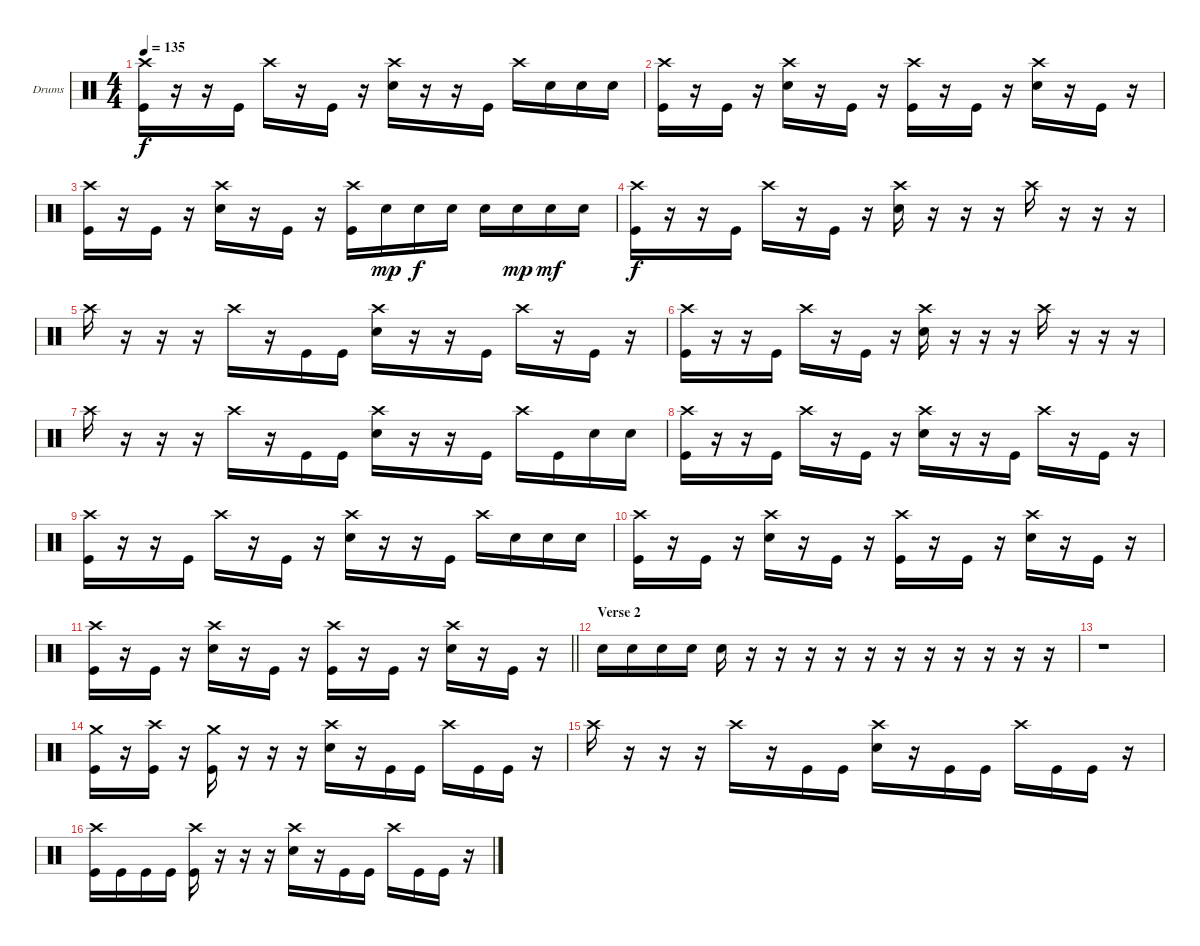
\bracketExtendMode groupsimilarinstruments
\firstSystemTrackNameOrientation horizontal
\otherSystemsTrackNameOrientation horizontal
\track ("Drumkit" "Drums") {instrument percussion}
\staff {score}
\articulation defaults
\ts (4 4)
\tempo 135
\clef neutral
\ks c
("Crash high (hit)" "Kick (hit)").16{dy f} r.16 r.16 "Kick (hit)".16 "Crash high (hit)".16 r.16 "Kick (hit)".16 r.16 ("Crash high (hit)" "Snare (hit) 2").16 r.16 r.16 "Kick (hit)".16 "Crash high (hit)".16 "Snare (hit) 2".16 "Snare (hit) 2".16 "Snare (hit) 2".16 |
("Crash high (hit)" "Kick (hit)").16 r.16 "Kick (hit)".16 r.16 ("Crash high (hit)" "Snare (hit) 2").16 r.16 "Kick (hit)".16 r.16 ("Crash high (hit)" "Kick (hit)").16 r.16 "Kick (hit)".16 r.16 ("Crash high (hit)" "Snare (hit) 2").16 r.16 "Kick (hit)".16 r.16 |
("Crash high (hit)" "Kick (hit)").16 r.16 "Kick (hit)".16 r.16 ("Crash high (hit)" "Snare (hit) 2").16 r.16 "Kick (hit)".16 r.16 ("Crash high (hit)" "Kick (hit)").16 "Snare (hit) 2".16{dy mp} "Snare (hit) 2".16{dy f} "Snare (hit) 2".16 "Snare (hit) 2".16 "Snare (hit) 2".16{dy mp} "Snare (hit) 2".16{dy mf} "Snare (hit) 2".16 |
("Crash high (hit)" "Kick (hit)").16{dy f} r.16 r.16 "Kick (hit)".16 "Crash high (hit)".16 r.16 "Kick (hit)".16 r.16 ("Crash high (hit)" "Snare (hit) 2").16 r.16 r.16 r.16 "Crash high (hit)".16 r.16 r.16 r.16 |
"Crash high (hit)".16 r.16 r.16 r.16 "Crash high (hit)".16 r.16 "Kick (hit)".16 "Kick (hit)".16 ("Crash high (hit)" "Snare (hit) 2").16 r.16 r.16 "Kick (hit)".16 "Crash high (hit)".16 r.16 "Kick (hit)".16 r.16 |
("Crash high (hit)" "Kick (hit)").16 r.16 r.16 "Kick (hit)".16 "Crash high (hit)".16 r.16 "Kick (hit)".16 r.16 ("Crash high (hit)" "Snare (hit) 2").16 r.16 r.16 r.16 "Crash high (hit)".16 r.16 r.16 r.16 |
"Crash high (hit)".16 r.16 r.16 r.16 "Crash high (hit)".16 r.16 "Kick (hit)".16 "Kick (hit)".16 ("Crash high (hit)" "Snare (hit) 2").16 r.16 r.16 "Kick (hit)".16 "Crash high (hit)".16 "Kick (hit)".16 "Snare (hit) 2".16 "Snare (hit) 2".16 |
("Crash high (hit)" "Kick (hit)").16 r.16 r.16 "Kick (hit)".16 "Crash high (hit)".16 r.16 "Kick (hit)".16 r.16 ("Crash high (hit)" "Snare (hit) 2").16 r.16 r.16 "Kick (hit)".16 "Crash high (hit)".16 r.16 "Kick (hit)".16 r.16 |
("Crash high (hit)" "Kick (hit)").16 r.16 r.16 "Kick (hit)".16 "Crash high (hit)".16 r.16 "Kick (hit)".16 r.16 ("Crash high (hit)" "Snare (hit) 2").16 r.16 r.16 "Kick (hit)".16 "Crash high (hit)".16 "Snare (hit) 2".16 "Snare (hit) 2".16 "Snare (hit) 2".16 |
("Crash high (hit)" "Kick (hit)").16 r.16 "Kick (hit)".16 r.16 ("Crash high (hit)" "Snare (hit) 2").16 r.16 "Kick (hit)".16 r.16 ("Crash high (hit)" "Kick (hit)").16 r.16 "Kick (hit)".16 r.16 ("Crash high (hit)" "Snare (hit) 2").16 r.16 "Kick (hit)".16 r.16 |
\barLineRight lightlight
("Crash high (hit)" "Kick (hit)").16 r.16 "Kick (hit)".16 r.16 ("Crash high (hit)" "Snare (hit) 2").16 r.16 "Kick (hit)".16 r.16 ("Crash high (hit)" "Kick (hit)").16 r.16 "Kick (hit)".16 r.16 ("Crash high (hit)" "Snare (hit) 2").16 r.16 "Kick (hit)".16 r.16 |
\section ("" "Verse 2")
"Snare (hit) 2".16 "Snare (hit) 2".16 "Snare (hit) 2".16 "Snare (hit) 2".16 "Snare (hit) 2".16 r.16 r.16 r.16 r.16 r.16 r.16 r.16 r.16 r.16 r.16 r.16 |
r.1 |
("Crash medium (hit)" "Kick (hit)").16 r.16 ("Crash high (hit)" "Kick (hit)").16 r.16 ("Crash medium (hit)" "Kick (hit)").16 r.16 r.16 r.16 ("Crash high (hit)" "Snare (hit) 2").16 r.16 "Kick (hit)".16 "Kick (hit)".16 "Crash high (hit)".16 "Kick (hit)".16 "Kick (hit)".16 r.16 |
"Crash high (hit)".16 r.16 r.16 r.16 "Crash high (hit)".16 r.16 "Kick (hit)".16 "Kick (hit)".16 ("Crash high (hit)" "Snare (hit) 2").16 r.16 "Kick (hit)".16 "Kick (hit)".16 "Crash high (hit)".16 "Kick (hit)".16 "Kick (hit)".16 r.16 |
("Crash high (hit)" "Kick (hit)").16 "Kick (hit)".16 "Kick (hit)".16 "Kick (hit)".16 ("Crash high (hit)" "Kick (hit)").16 r.16 r.16 r.16 ("Crash high (hit)" "Snare (hit) 2").16 r.16 "Kick (hit)".16 "Kick (hit)".16 "Crash high (hit)".16 "Kick (hit)".16 "Kick (hit)".16 r.16
